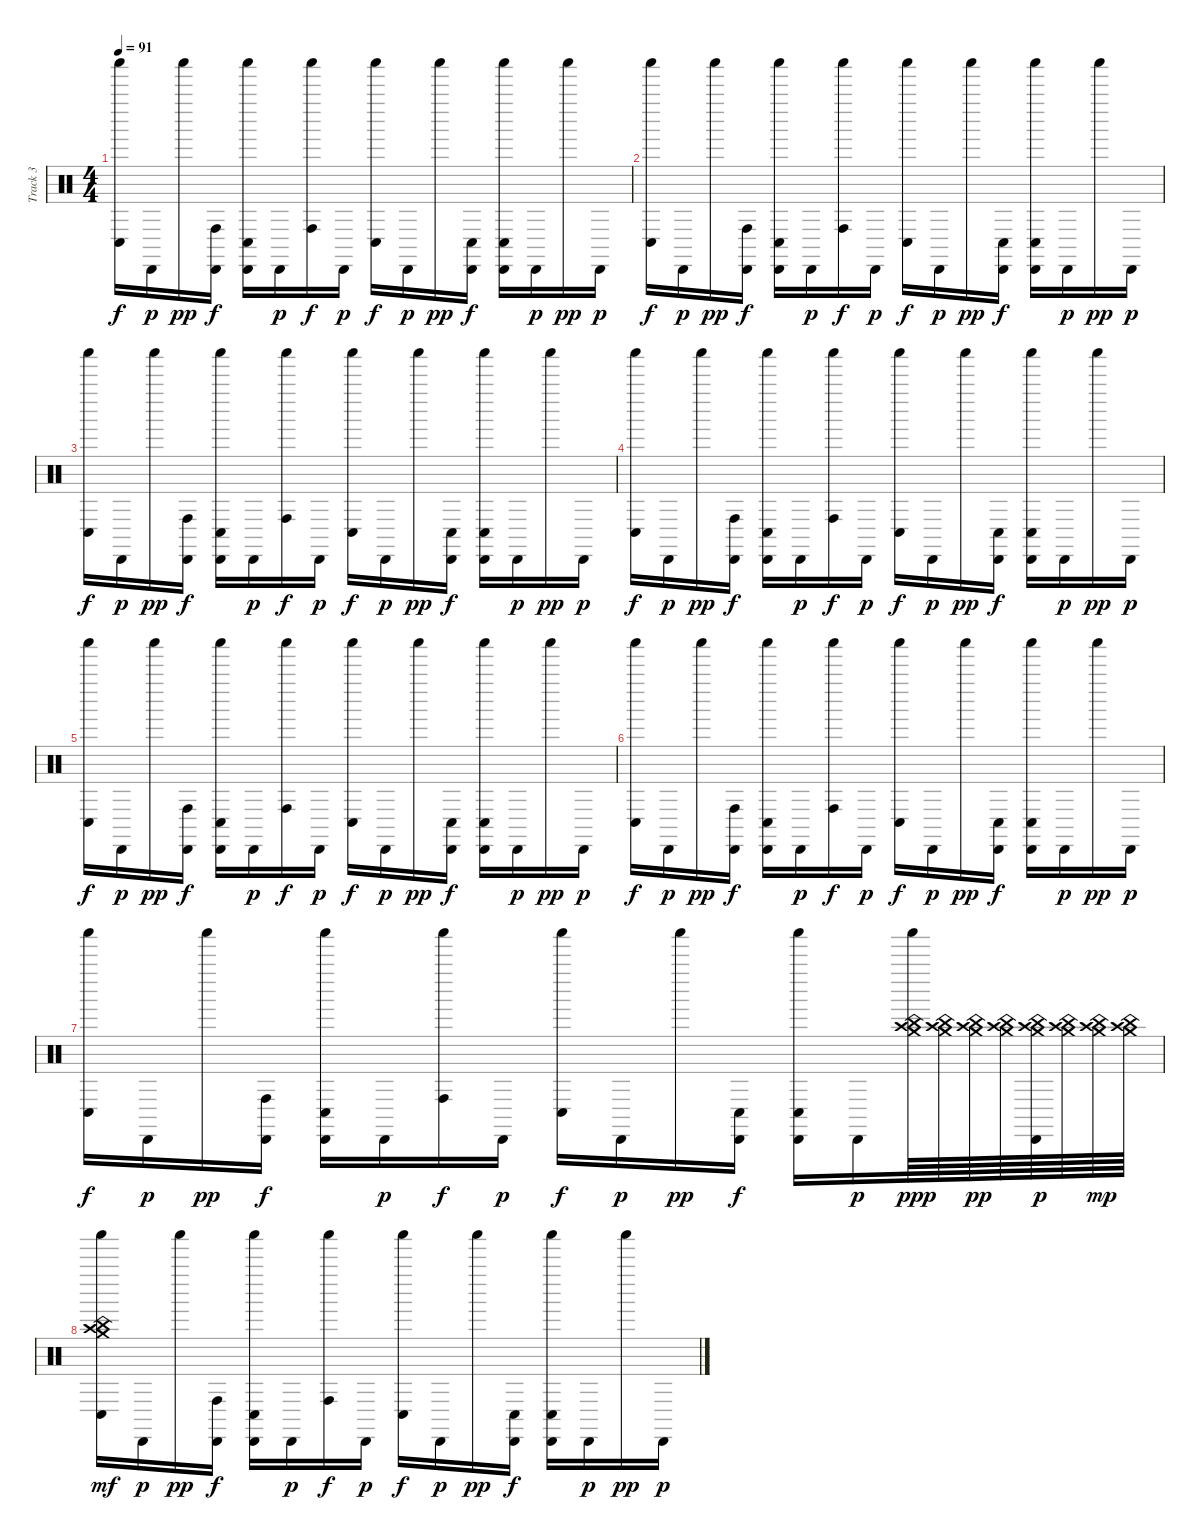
\track ("Track 3" "Track 3") {instrument percussion}
\staff {score}
\articulation defaults
\ts (4 4)
\tempo 91
\clef neutral
\ks c
("Shaker (hit)" "Conga low (hit)").16{dy f} "Cabasa (hit)".16{dy p} "Shaker (hit)".16{dy pp} ("Cabasa (hit)" "Conga high (hit)").16{dy f} ("Cabasa (hit)" "Shaker (hit)" "Conga low (hit)").16 "Cabasa (hit)".16{dy p} ("Shaker (hit)" "Conga high (hit)").16{dy f} "Cabasa (hit)".16{dy p} ("Shaker (hit)" "Conga low (hit)").16{dy f} "Cabasa (hit)".16{dy p} "Shaker (hit)".16{dy pp} ("Cabasa (hit)" "Conga low (hit)").16{dy f} ("Cabasa (hit)" "Shaker (hit)" "Conga low (hit)").16 "Cabasa (hit)".16{dy p} "Shaker (hit)".16{dy pp} "Cabasa (hit)".16{dy p} |
("Shaker (hit)" "Conga low (hit)").16{dy f} "Cabasa (hit)".16{dy p} "Shaker (hit)".16{dy pp} ("Cabasa (hit)" "Conga high (hit)").16{dy f} ("Cabasa (hit)" "Shaker (hit)" "Conga low (hit)").16 "Cabasa (hit)".16{dy p} ("Shaker (hit)" "Conga high (hit)").16{dy f} "Cabasa (hit)".16{dy p} ("Shaker (hit)" "Conga low (hit)").16{dy f} "Cabasa (hit)".16{dy p} "Shaker (hit)".16{dy pp} ("Cabasa (hit)" "Conga low (hit)").16{dy f} ("Cabasa (hit)" "Shaker (hit)" "Conga low (hit)").16 "Cabasa (hit)".16{dy p} "Shaker (hit)".16{dy pp} "Cabasa (hit)".16{dy p} |
("Shaker (hit)" "Conga low (hit)").16{dy f} "Cabasa (hit)".16{dy p} "Shaker (hit)".16{dy pp} ("Cabasa (hit)" "Conga high (hit)").16{dy f} ("Cabasa (hit)" "Shaker (hit)" "Conga low (hit)").16 "Cabasa (hit)".16{dy p} ("Shaker (hit)" "Conga high (hit)").16{dy f} "Cabasa (hit)".16{dy p} ("Shaker (hit)" "Conga low (hit)").16{dy f} "Cabasa (hit)".16{dy p} "Shaker (hit)".16{dy pp} ("Cabasa (hit)" "Conga low (hit)").16{dy f} ("Cabasa (hit)" "Shaker (hit)" "Conga low (hit)").16 "Cabasa (hit)".16{dy p} "Shaker (hit)".16{dy pp} "Cabasa (hit)".16{dy p} |
("Shaker (hit)" "Conga low (hit)").16{dy f} "Cabasa (hit)".16{dy p} "Shaker (hit)".16{dy pp} ("Cabasa (hit)" "Conga high (hit)").16{dy f} ("Cabasa (hit)" "Shaker (hit)" "Conga low (hit)").16 "Cabasa (hit)".16{dy p} ("Shaker (hit)" "Conga high (hit)").16{dy f} "Cabasa (hit)".16{dy p} ("Shaker (hit)" "Conga low (hit)").16{dy f} "Cabasa (hit)".16{dy p} "Shaker (hit)".16{dy pp} ("Cabasa (hit)" "Conga low (hit)").16{dy f} ("Cabasa (hit)" "Shaker (hit)" "Conga low (hit)").16 "Cabasa (hit)".16{dy p} "Shaker (hit)".16{dy pp} "Cabasa (hit)".16{dy p} |
("Shaker (hit)" "Conga low (hit)").16{dy f} "Cabasa (hit)".16{dy p} "Shaker (hit)".16{dy pp} ("Cabasa (hit)" "Conga high (hit)").16{dy f} ("Cabasa (hit)" "Shaker (hit)" "Conga low (hit)").16 "Cabasa (hit)".16{dy p} ("Shaker (hit)" "Conga high (hit)").16{dy f} "Cabasa (hit)".16{dy p} ("Shaker (hit)" "Conga low (hit)").16{dy f} "Cabasa (hit)".16{dy p} "Shaker (hit)".16{dy pp} ("Cabasa (hit)" "Conga low (hit)").16{dy f} ("Cabasa (hit)" "Shaker (hit)" "Conga low (hit)").16 "Cabasa (hit)".16{dy p} "Shaker (hit)".16{dy pp} "Cabasa (hit)".16{dy p} |
("Shaker (hit)" "Conga low (hit)").16{dy f} "Cabasa (hit)".16{dy p} "Shaker (hit)".16{dy pp} ("Cabasa (hit)" "Conga high (hit)").16{dy f} ("Cabasa (hit)" "Shaker (hit)" "Conga low (hit)").16 "Cabasa (hit)".16{dy p} ("Shaker (hit)" "Conga high (hit)").16{dy f} "Cabasa (hit)".16{dy p} ("Shaker (hit)" "Conga low (hit)").16{dy f} "Cabasa (hit)".16{dy p} "Shaker (hit)".16{dy pp} ("Cabasa (hit)" "Conga low (hit)").16{dy f} ("Cabasa (hit)" "Shaker (hit)" "Conga low (hit)").16 "Cabasa (hit)".16{dy p} "Shaker (hit)".16{dy pp} "Cabasa (hit)".16{dy p} |
("Shaker (hit)" "Conga low (hit)").16{dy f} "Cabasa (hit)".16{dy p} "Shaker (hit)".16{dy pp} ("Cabasa (hit)" "Conga high (hit)").16{dy f} ("Cabasa (hit)" "Shaker (hit)" "Conga low (hit)").16 "Cabasa (hit)".16{dy p} ("Shaker (hit)" "Conga high (hit)").16{dy f} "Cabasa (hit)".16{dy p} ("Shaker (hit)" "Conga low (hit)").16{dy f} "Cabasa (hit)".16{dy p} "Shaker (hit)".16{dy pp} ("Cabasa (hit)" "Conga low (hit)").16{dy f} ("Cabasa (hit)" "Shaker (hit)" "Conga low (hit)").16 "Cabasa (hit)".16{dy p} ("Shaker (hit)" "China (hit)" "Crash medium (hit)" "Crash high (hit)").64{dy ppp} ("China (hit)" "Crash medium (hit)" "Crash high (hit)").64 ("China (hit)" "Crash medium (hit)" "Crash high (hit)").64{dy pp} ("China (hit)" "Crash medium (hit)" "Crash high (hit)").64 ("Cabasa (hit)" "China (hit)" "Crash medium (hit)" "Crash high (hit)").64{dy p} ("China (hit)" "Crash medium (hit)" "Crash high (hit)").64 ("China (hit)" "Crash medium (hit)" "Crash high (hit)").64{dy mp} ("China (hit)" "Crash medium (hit)" "Crash high (hit)").64 |
("China (hit)" "Shaker (hit)" "Crash medium (hit)" "Conga low (hit)" "Crash high (hit)").16{dy mf} "Cabasa (hit)".16{dy p} "Shaker (hit)".16{dy pp} ("Cabasa (hit)" "Conga high (hit)").16{dy f} ("Cabasa (hit)" "Shaker (hit)" "Conga low (hit)").16 "Cabasa (hit)".16{dy p} ("Shaker (hit)" "Conga high (hit)").16{dy f} "Cabasa (hit)".16{dy p} ("Shaker (hit)" "Conga low (hit)").16{dy f} "Cabasa (hit)".16{dy p} "Shaker (hit)".16{dy pp} ("Cabasa (hit)" "Conga low (hit)").16{dy f} ("Cabasa (hit)" "Shaker (hit)" "Conga low (hit)").16 "Cabasa (hit)".16{dy p} "Shaker (hit)".16{dy pp} "Cabasa (hit)".16{dy p}
